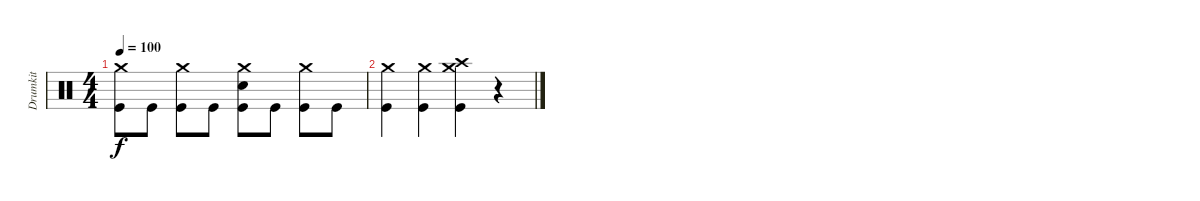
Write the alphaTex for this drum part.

\track ("Drumkit" "Drumkit") {instrument percussion}
\staff {score}
\articulation defaults
\ts (4 4)
\tempo 100
\clef neutral
\ks c
("Crash medium (hit)" "Kick (hit)").8{dy f} "Kick (hit)".8 ("Crash medium (hit)" "Kick (hit)").8 "Kick (hit)".8 ("Crash medium (hit)" "Snare (hit) 2" "Kick (hit)").8 "Kick (hit)".8 ("Crash medium (hit)" "Kick (hit)").8 "Kick (hit)".8 |
("Crash medium (hit)" "Kick (hit)").4 ("Crash medium (hit)" "Kick (hit)").4 ("Crash medium (hit)" "Crash high (hit)" "Kick (hit)").4 r.4
